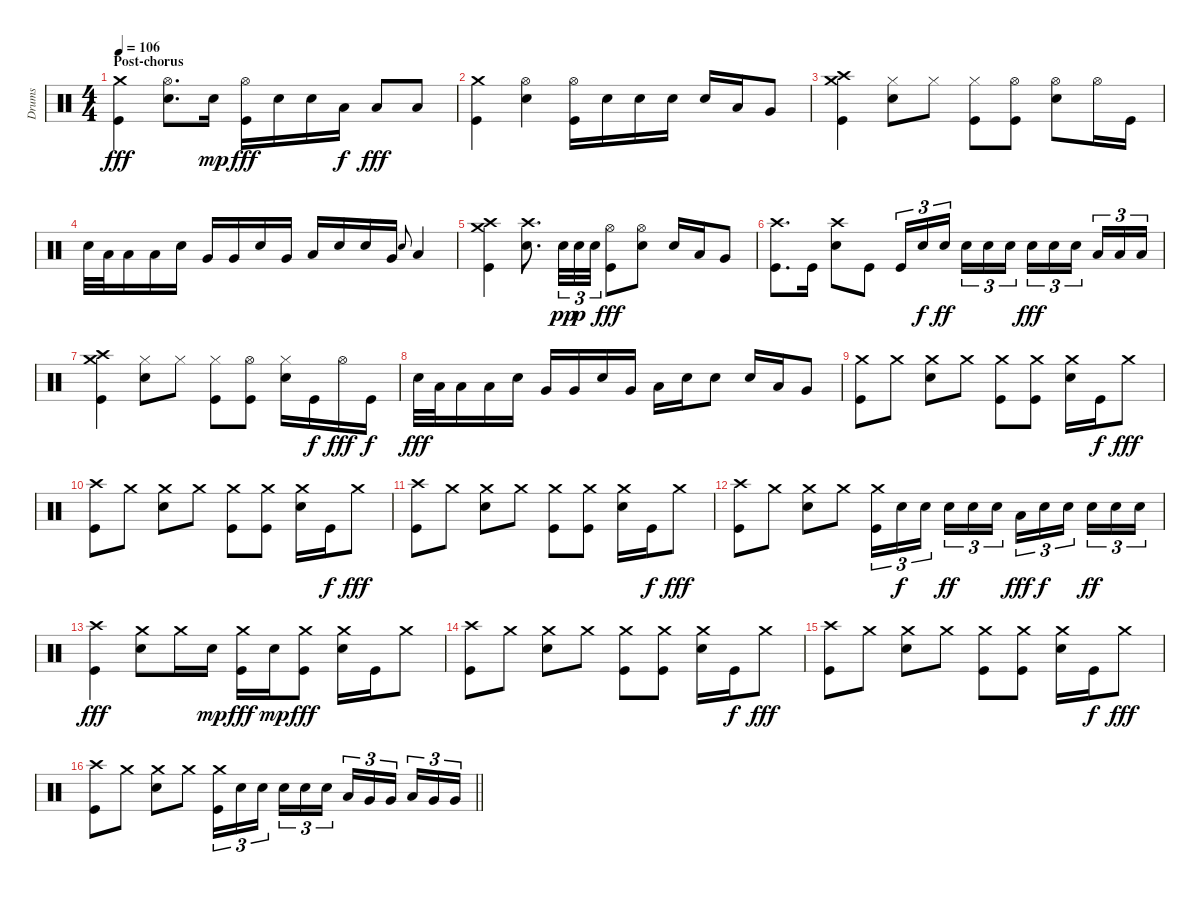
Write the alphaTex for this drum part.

\track ("Drums" "Drums") {instrument percussion}
\staff {score}
\articulation defaults
\ts (4 4)
\section ("" "Post-chorus")
\tempo 106
\clef neutral
\ks c
("Crash medium (hit)" "Kick (hit)").4{dy fff} ("Hi-Hat (open)" "Snare (hit) 2").8{d} "Snare (hit) 2".16{dy mp} ("Hi-Hat (open)" "Kick (hit)").16{dy fff} "Snare (hit) 2".16 "Snare (hit) 2".16 "Low Tom (hit)".16{dy f} "Low Tom (hit)".8{dy fff} "Low Tom (hit)".8 |
("Crash medium (hit)" "Kick (hit)").4 ("Hi-Hat (open)" "Snare (hit) 2").4 ("Hi-Hat (open)" "Kick (hit)").16 "Snare (hit) 2".16 "Snare (hit) 2".16 "Snare (hit) 2".16 "Snare (hit) 2".16 "Low Tom (hit)".16 "Very Low Tom (hit)".8 |
("Crash medium (hit)" "Crash high (hit)" "Kick (hit)").4 ("Hi-Hat (closed)" "Snare (hit) 2").8 "Hi-Hat (closed)".8 ("Hi-Hat (closed)" "Kick (hit)").8 ("Hi-Hat (open)" "Kick (hit)").8 ("Hi-Hat (open)" "Snare (hit) 2").8 "Hi-Hat (open)".16 "Kick (hit)".16 |
"Snare (hit) 2".32 "Low Tom (hit)".32 "Low Tom (hit)".16 "Low Tom (hit)".16 "Snare (hit) 2".16 "Very Low Tom (hit)".16 "Very Low Tom (hit)".16 "Snare (hit) 2".16 "Very Low Tom (hit)".16 "Low Tom (hit)".16 "Snare (hit) 2".16 "Snare (hit) 2".16 "Very Low Tom (hit)".16 "Snare (hit) 2".8{gr onbeat} "Low Tom (hit)".4 |
("Crash medium (hit)" "Crash high (hit)" "Kick (hit)").4 ("Crash high (hit)" "Snare (hit) 2").8{d} "Snare (hit) 2".32{tu (3 2) dy pp} "Snare (hit) 2".32{tu (3 2) dy p} "Snare (hit) 2".32{tu (3 2)} ("Hi-Hat (open)" "Kick (hit)").8{dy fff} ("Hi-Hat (open)" "Snare (hit) 2").8 "Snare (hit) 2".16 "Low Tom (hit)".16 "Very Low Tom (hit)".8 |
("Crash high (hit)" "Kick (hit)").8{d} "Kick (hit)".16 ("Crash high (hit)" "Snare (hit) 2").8 "Kick (hit)".8 "Kick (hit)".16{tu (3 2)} "Snare (hit) 2".16{tu (3 2) dy f} "Snare (hit) 2".16{tu (3 2) dy ff beam splitsecondary} "Snare (hit) 2".16{tu (3 2)} "Snare (hit) 2".16{tu (3 2)} "Snare (hit) 2".16{tu (3 2)} "Snare (hit) 2".16{tu (3 2) dy fff} "Snare (hit) 2".16{tu (3 2)} "Snare (hit) 2".16{tu (3 2) beam splitsecondary} "Low Tom (hit)".16{tu (3 2)} "Low Tom (hit)".16{tu (3 2)} "Low Tom (hit)".16{tu (3 2)} |
("Crash medium (hit)" "Crash high (hit)" "Kick (hit)").4 ("Hi-Hat (closed)" "Snare (hit) 2").8 "Hi-Hat (closed)".8 ("Hi-Hat (closed)" "Kick (hit)").8 ("Hi-Hat (open)" "Kick (hit)").8 ("Hi-Hat (closed)" "Snare (hit) 2").16 "Kick (hit)".16{dy f} "Hi-Hat (open)".16{dy fff} "Kick (hit)".16{dy f} |
"Snare (hit) 2".32{dy fff} "Low Tom (hit)".32 "Low Tom (hit)".16 "Low Tom (hit)".16 "Snare (hit) 2".16 "Very Low Tom (hit)".16 "Very Low Tom (hit)".16 "Snare (hit) 2".16 "Very Low Tom (hit)".16 "Low Tom (hit)".16 "Snare (hit) 2".16 "Snare (hit) 2".8 "Snare (hit) 2".16 "Low Tom (hit)".16 "Very Low Tom (hit)".8 |
("Crash medium (hit)" "Kick (hit)").8 "Crash medium (hit)".8 ("Crash medium (hit)" "Snare (hit) 2").8 "Crash medium (hit)".8 ("Crash medium (hit)" "Kick (hit)").8 ("Crash medium (hit)" "Kick (hit)").8 ("Crash medium (hit)" "Snare (hit) 2").16 "Kick (hit)".16{dy f} "Crash medium (hit)".8{dy fff} |
("Crash high (hit)" "Kick (hit)").8 "Crash medium (hit)".8 ("Crash medium (hit)" "Snare (hit) 2").8 "Crash medium (hit)".8 ("Crash medium (hit)" "Kick (hit)").8 ("Crash medium (hit)" "Kick (hit)").8 ("Crash medium (hit)" "Snare (hit) 2").16 "Kick (hit)".16{dy f} "Crash medium (hit)".8{dy fff} |
("Crash high (hit)" "Kick (hit)").8 "Crash medium (hit)".8 ("Crash medium (hit)" "Snare (hit) 2").8 "Crash medium (hit)".8 ("Crash medium (hit)" "Kick (hit)").8 ("Crash medium (hit)" "Kick (hit)").8 ("Crash medium (hit)" "Snare (hit) 2").16 "Kick (hit)".16{dy f} "Crash medium (hit)".8{dy fff} |
("Crash high (hit)" "Kick (hit)").8 "Crash medium (hit)".8 ("Crash medium (hit)" "Snare (hit) 2").8 "Crash medium (hit)".8 ("Crash medium (hit)" "Kick (hit)").16{tu (3 2)} "Snare (hit) 2".16{tu (3 2) dy f} "Snare (hit) 2".16{tu (3 2) beam splitsecondary} "Snare (hit) 2".16{tu (3 2) dy ff} "Snare (hit) 2".16{tu (3 2)} "Snare (hit) 2".16{tu (3 2)} "Low Tom (hit)".16{tu (3 2) dy fff} "Snare (hit) 2".16{tu (3 2) dy f} "Snare (hit) 2".16{tu (3 2) beam splitsecondary} "Snare (hit) 2".16{tu (3 2) dy ff} "Snare (hit) 2".16{tu (3 2)} "Snare (hit) 2".16{tu (3 2)} |
("Crash high (hit)" "Kick (hit)").4{dy fff} ("Crash medium (hit)" "Snare (hit) 2").8 "Crash medium (hit)".16 "Snare (hit) 2".16{dy mp} ("Crash medium (hit)" "Kick (hit)").16{dy fff} "Snare (hit) 2".16{dy mp} ("Crash medium (hit)" "Kick (hit)").8{dy fff} ("Crash medium (hit)" "Snare (hit) 2").16 "Kick (hit)".16 "Crash medium (hit)".8 |
("Crash high (hit)" "Kick (hit)").8 "Crash medium (hit)".8 ("Crash medium (hit)" "Snare (hit) 2").8 "Crash medium (hit)".8 ("Crash medium (hit)" "Kick (hit)").8 ("Crash medium (hit)" "Kick (hit)").8 ("Crash medium (hit)" "Snare (hit) 2").16 "Kick (hit)".16{dy f} "Crash medium (hit)".8{dy fff} |
("Crash high (hit)" "Kick (hit)").8 "Crash medium (hit)".8 ("Crash medium (hit)" "Snare (hit) 2").8 "Crash medium (hit)".8 ("Crash medium (hit)" "Kick (hit)").8 ("Crash medium (hit)" "Kick (hit)").8 ("Crash medium (hit)" "Snare (hit) 2").16 "Kick (hit)".16{dy f} "Crash medium (hit)".8{dy fff} |
\barLineRight lightlight
("Crash high (hit)" "Kick (hit)").8 "Crash medium (hit)".8 ("Crash medium (hit)" "Snare (hit) 2").8 "Crash medium (hit)".8 ("Crash medium (hit)" "Kick (hit)").16{tu (3 2)} "Snare (hit) 2".16{tu (3 2)} "Snare (hit) 2".16{tu (3 2) beam splitsecondary} "Snare (hit) 2".16{tu (3 2)} "Snare (hit) 2".16{tu (3 2)} "Snare (hit) 2".16{tu (3 2)} "Low Tom (hit)".16{tu (3 2)} "Very Low Tom (hit)".16{tu (3 2)} "Very Low Tom (hit)".16{tu (3 2) beam splitsecondary} "Low Tom (hit)".16{tu (3 2)} "Very Low Tom (hit)".16{tu (3 2)} "Very Low Tom (hit)".16{tu (3 2)}
